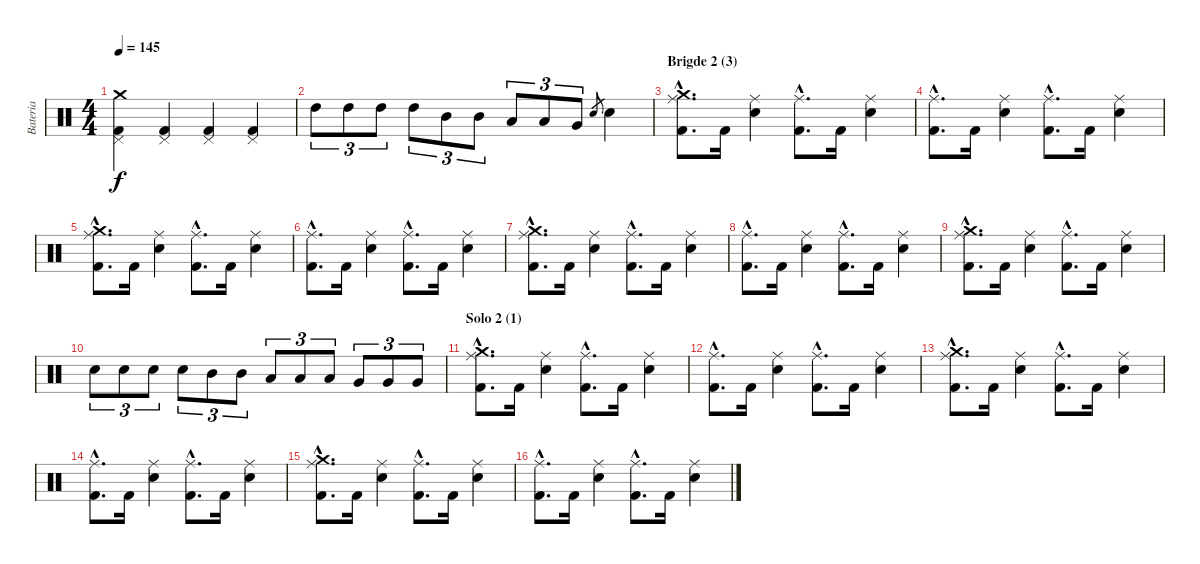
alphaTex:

\track ("Bateria" "Bateria") {instrument percussion}
\staff {score}
\articulation defaults
\ts (4 4)
\tempo 145
\clef neutral
\ks c
("Crash medium (hit)" "Kick (hit) 2" "Pedal Hi-Hat (hit)").4{dy f} ("Kick (hit) 2" "Pedal Hi-Hat (hit)").4 ("Kick (hit) 2" "Pedal Hi-Hat (hit)").4 ("Kick (hit) 2" "Pedal Hi-Hat (hit)").4 |
"High Tom (hit)".8{tu (3 2)} "High Tom (hit)".8{tu (3 2)} "High Tom (hit)".8{tu (3 2)} "High Tom (hit)".8{tu (3 2)} "Mid Tom (hit)".8{tu (3 2)} "Mid Tom (hit)".8{tu (3 2)} "Low Tom (hit)".8{tu (3 2)} "Low Tom (hit)".8{tu (3 2)} "Very Low Tom (hit)".8{tu (3 2)} "Snare (hit) 2".8{gr} "Snare (hit) 2".4 |
\section ("" "Brigde 2 (3)")
("Ride (middle)"{hac} "Crash medium (hit)"{hac} "Kick (hit) 2"{hac}).8{d} "Kick (hit) 2".16 ("Ride (middle)" "Snare (hit) 2").4 ("Ride (middle)"{hac} "Kick (hit) 2"{hac}).8{d} "Kick (hit) 2".16 ("Ride (middle)" "Snare (hit) 2").4 |
("Ride (middle)"{hac} "Kick (hit) 2"{hac}).8{d} "Kick (hit) 2".16 ("Ride (middle)" "Snare (hit) 2").4 ("Ride (middle)"{hac} "Kick (hit) 2"{hac}).8{d} "Kick (hit) 2".16 ("Ride (middle)" "Snare (hit) 2").4 |
("Ride (middle)"{hac} "Crash medium (hit)"{hac} "Kick (hit) 2"{hac}).8{d} "Kick (hit) 2".16 ("Ride (middle)" "Snare (hit) 2").4 ("Ride (middle)"{hac} "Kick (hit) 2"{hac}).8{d} "Kick (hit) 2".16 ("Ride (middle)" "Snare (hit) 2").4 |
("Ride (middle)"{hac} "Kick (hit) 2"{hac}).8{d} "Kick (hit) 2".16 ("Ride (middle)" "Snare (hit) 2").4 ("Ride (middle)"{hac} "Kick (hit) 2"{hac}).8{d} "Kick (hit) 2".16 ("Ride (middle)" "Snare (hit) 2").4 |
("Ride (middle)"{hac} "Crash medium (hit)"{hac} "Kick (hit) 2"{hac}).8{d} "Kick (hit) 2".16 ("Ride (middle)" "Snare (hit) 2").4 ("Ride (middle)"{hac} "Kick (hit) 2"{hac}).8{d} "Kick (hit) 2".16 ("Ride (middle)" "Snare (hit) 2").4 |
("Ride (middle)"{hac} "Kick (hit) 2"{hac}).8{d} "Kick (hit) 2".16 ("Ride (middle)" "Snare (hit) 2").4 ("Ride (middle)"{hac} "Kick (hit) 2"{hac}).8{d} "Kick (hit) 2".16 ("Ride (middle)" "Snare (hit) 2").4 |
("Ride (middle)"{hac} "Crash medium (hit)"{hac} "Kick (hit) 2"{hac}).8{d} "Kick (hit) 2".16 ("Ride (middle)" "Snare (hit) 2").4 ("Ride (middle)"{hac} "Kick (hit) 2"{hac}).8{d} "Kick (hit) 2".16 ("Ride (middle)" "Snare (hit) 2").4 |
"Snare (hit) 2".8{tu (3 2)} "Snare (hit) 2".8{tu (3 2)} "Snare (hit) 2".8{tu (3 2)} "Snare (hit) 2".8{tu (3 2)} "Mid Tom (hit)".8{tu (3 2)} "Mid Tom (hit)".8{tu (3 2)} "Low Tom (hit)".8{tu (3 2)} "Low Tom (hit)".8{tu (3 2)} "Low Tom (hit)".8{tu (3 2)} "Very Low Tom (hit)".8{tu (3 2)} "Very Low Tom (hit)".8{tu (3 2)} "Very Low Tom (hit)".8{tu (3 2)} |
\section ("" "Solo 2 (1)")
("Ride (middle)"{hac} "Crash medium (hit)"{hac} "Kick (hit) 2"{hac}).8{d} "Kick (hit) 2".16 ("Ride (middle)" "Snare (hit) 2").4 ("Ride (middle)"{hac} "Kick (hit) 2"{hac}).8{d} "Kick (hit) 2".16 ("Ride (middle)" "Snare (hit) 2").4 |
("Ride (middle)"{hac} "Kick (hit) 2"{hac}).8{d} "Kick (hit) 2".16 ("Ride (middle)" "Snare (hit) 2").4 ("Ride (middle)"{hac} "Kick (hit) 2"{hac}).8{d} "Kick (hit) 2".16 ("Ride (middle)" "Snare (hit) 2").4 |
("Ride (middle)"{hac} "Crash medium (hit)"{hac} "Kick (hit) 2"{hac}).8{d} "Kick (hit) 2".16 ("Ride (middle)" "Snare (hit) 2").4 ("Ride (middle)"{hac} "Kick (hit) 2"{hac}).8{d} "Kick (hit) 2".16 ("Ride (middle)" "Snare (hit) 2").4 |
("Ride (middle)"{hac} "Kick (hit) 2"{hac}).8{d} "Kick (hit) 2".16 ("Ride (middle)" "Snare (hit) 2").4 ("Ride (middle)"{hac} "Kick (hit) 2"{hac}).8{d} "Kick (hit) 2".16 ("Ride (middle)" "Snare (hit) 2").4 |
("Ride (middle)"{hac} "Crash medium (hit)"{hac} "Kick (hit) 2"{hac}).8{d} "Kick (hit) 2".16 ("Ride (middle)" "Snare (hit) 2").4 ("Ride (middle)"{hac} "Kick (hit) 2"{hac}).8{d} "Kick (hit) 2".16 ("Ride (middle)" "Snare (hit) 2").4 |
("Ride (middle)"{hac} "Kick (hit) 2"{hac}).8{d} "Kick (hit) 2".16 ("Ride (middle)" "Snare (hit) 2").4 ("Ride (middle)"{hac} "Kick (hit) 2"{hac}).8{d} "Kick (hit) 2".16 ("Ride (middle)" "Snare (hit) 2").4
